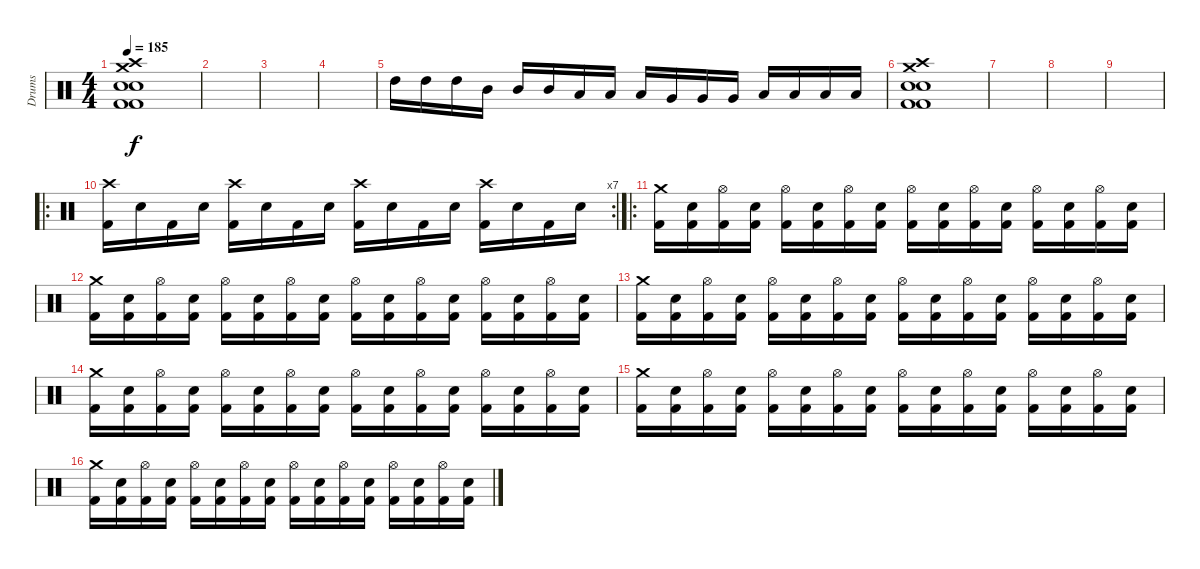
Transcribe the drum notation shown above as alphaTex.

\track ("Drums" "Drums") {instrument percussion}
\staff {score}
\articulation defaults
\ts (4 4)
\tempo 185
\clef neutral
\ks c
("Crash high (hit)" "Crash medium (hit)" "Snare (hit) 2" "Snare (hit) 2" "Kick (hit) 2" "Kick (hit) 2").1{dy f} |
|
|
|
"High Tom (hit)".16 "High Tom (hit)".16 "High Tom (hit)".16 "Mid Tom (hit)".16 "Mid Tom (hit)".16 "Mid Tom (hit)".16 "Low Tom (hit)".16 "Low Tom (hit)".16 "Low Tom (hit)".16 "Very Low Tom (hit)".16 "Very Low Tom (hit)".16 "Very Low Tom (hit)".16 "Low Floor Tom (hit)".16 "Low Floor Tom (hit)".16 "Low Floor Tom (hit)".16 "Low Floor Tom (hit)".16 |
("Crash high (hit)" "Crash medium (hit)" "Snare (hit) 2" "Snare (hit) 2" "Kick (hit) 2" "Kick (hit) 2").1 |
|
|
|
\ro
\rc 7
("Crash high (hit)" "Kick (hit) 2").16 "Snare (hit) 2".16 "Kick (hit) 2".16 "Snare (hit) 2".16 ("Crash high (hit)" "Kick (hit) 2").16 "Snare (hit) 2".16 "Kick (hit) 2".16 "Snare (hit) 2".16 ("Crash high (hit)" "Kick (hit) 2").16 "Snare (hit) 2".16 "Kick (hit) 2".16 "Snare (hit) 2".16 ("Crash high (hit)" "Kick (hit) 2").16 "Snare (hit) 2".16 "Kick (hit) 2".16 "Snare (hit) 2".16 |
\ro
("Crash medium (hit)" "Kick (hit) 2").16 ("Snare (hit) 2" "Kick (hit) 2").16 ("Hi-Hat (open)" "Kick (hit) 2").16 ("Snare (hit) 2" "Kick (hit) 2").16 ("Hi-Hat (open)" "Kick (hit) 2").16 ("Snare (hit) 2" "Kick (hit) 2").16 ("Hi-Hat (open)" "Kick (hit) 2").16 ("Snare (hit) 2" "Kick (hit) 2").16 ("Hi-Hat (open)" "Kick (hit) 2").16 ("Snare (hit) 2" "Kick (hit) 2").16 ("Hi-Hat (open)" "Kick (hit) 2").16 ("Snare (hit) 2" "Kick (hit) 2").16 ("Hi-Hat (open)" "Kick (hit) 2").16 ("Snare (hit) 2" "Kick (hit) 2").16 ("Hi-Hat (open)" "Kick (hit) 2").16 ("Snare (hit) 2" "Kick (hit) 2").16 |
("Crash medium (hit)" "Kick (hit) 2").16 ("Snare (hit) 2" "Kick (hit) 2").16 ("Hi-Hat (open)" "Kick (hit) 2").16 ("Snare (hit) 2" "Kick (hit) 2").16 ("Hi-Hat (open)" "Kick (hit) 2").16 ("Snare (hit) 2" "Kick (hit) 2").16 ("Hi-Hat (open)" "Kick (hit) 2").16 ("Snare (hit) 2" "Kick (hit) 2").16 ("Hi-Hat (open)" "Kick (hit) 2").16 ("Snare (hit) 2" "Kick (hit) 2").16 ("Hi-Hat (open)" "Kick (hit) 2").16 ("Snare (hit) 2" "Kick (hit) 2").16 ("Hi-Hat (open)" "Kick (hit) 2").16 ("Snare (hit) 2" "Kick (hit) 2").16 ("Hi-Hat (open)" "Kick (hit) 2").16 ("Snare (hit) 2" "Kick (hit) 2").16 |
("Crash medium (hit)" "Kick (hit) 2").16 ("Snare (hit) 2" "Kick (hit) 2").16 ("Hi-Hat (open)" "Kick (hit) 2").16 ("Snare (hit) 2" "Kick (hit) 2").16 ("Hi-Hat (open)" "Kick (hit) 2").16 ("Snare (hit) 2" "Kick (hit) 2").16 ("Hi-Hat (open)" "Kick (hit) 2").16 ("Snare (hit) 2" "Kick (hit) 2").16 ("Hi-Hat (open)" "Kick (hit) 2").16 ("Snare (hit) 2" "Kick (hit) 2").16 ("Hi-Hat (open)" "Kick (hit) 2").16 ("Snare (hit) 2" "Kick (hit) 2").16 ("Hi-Hat (open)" "Kick (hit) 2").16 ("Snare (hit) 2" "Kick (hit) 2").16 ("Hi-Hat (open)" "Kick (hit) 2").16 ("Snare (hit) 2" "Kick (hit) 2").16 |
("Crash medium (hit)" "Kick (hit) 2").16 ("Snare (hit) 2" "Kick (hit) 2").16 ("Hi-Hat (open)" "Kick (hit) 2").16 ("Snare (hit) 2" "Kick (hit) 2").16 ("Hi-Hat (open)" "Kick (hit) 2").16 ("Snare (hit) 2" "Kick (hit) 2").16 ("Hi-Hat (open)" "Kick (hit) 2").16 ("Snare (hit) 2" "Kick (hit) 2").16 ("Hi-Hat (open)" "Kick (hit) 2").16 ("Snare (hit) 2" "Kick (hit) 2").16 ("Hi-Hat (open)" "Kick (hit) 2").16 ("Snare (hit) 2" "Kick (hit) 2").16 ("Hi-Hat (open)" "Kick (hit) 2").16 ("Snare (hit) 2" "Kick (hit) 2").16 ("Hi-Hat (open)" "Kick (hit) 2").16 ("Snare (hit) 2" "Kick (hit) 2").16 |
("Crash medium (hit)" "Kick (hit) 2").16 ("Snare (hit) 2" "Kick (hit) 2").16 ("Hi-Hat (open)" "Kick (hit) 2").16 ("Snare (hit) 2" "Kick (hit) 2").16 ("Hi-Hat (open)" "Kick (hit) 2").16 ("Snare (hit) 2" "Kick (hit) 2").16 ("Hi-Hat (open)" "Kick (hit) 2").16 ("Snare (hit) 2" "Kick (hit) 2").16 ("Hi-Hat (open)" "Kick (hit) 2").16 ("Snare (hit) 2" "Kick (hit) 2").16 ("Hi-Hat (open)" "Kick (hit) 2").16 ("Snare (hit) 2" "Kick (hit) 2").16 ("Hi-Hat (open)" "Kick (hit) 2").16 ("Snare (hit) 2" "Kick (hit) 2").16 ("Hi-Hat (open)" "Kick (hit) 2").16 ("Snare (hit) 2" "Kick (hit) 2").16 |
("Crash medium (hit)" "Kick (hit) 2").16 ("Snare (hit) 2" "Kick (hit) 2").16 ("Hi-Hat (open)" "Kick (hit) 2").16 ("Snare (hit) 2" "Kick (hit) 2").16 ("Hi-Hat (open)" "Kick (hit) 2").16 ("Snare (hit) 2" "Kick (hit) 2").16 ("Hi-Hat (open)" "Kick (hit) 2").16 ("Snare (hit) 2" "Kick (hit) 2").16 ("Hi-Hat (open)" "Kick (hit) 2").16 ("Snare (hit) 2" "Kick (hit) 2").16 ("Hi-Hat (open)" "Kick (hit) 2").16 ("Snare (hit) 2" "Kick (hit) 2").16 ("Hi-Hat (open)" "Kick (hit) 2").16 ("Snare (hit) 2" "Kick (hit) 2").16 ("Hi-Hat (open)" "Kick (hit) 2").16 ("Snare (hit) 2" "Kick (hit) 2").16
